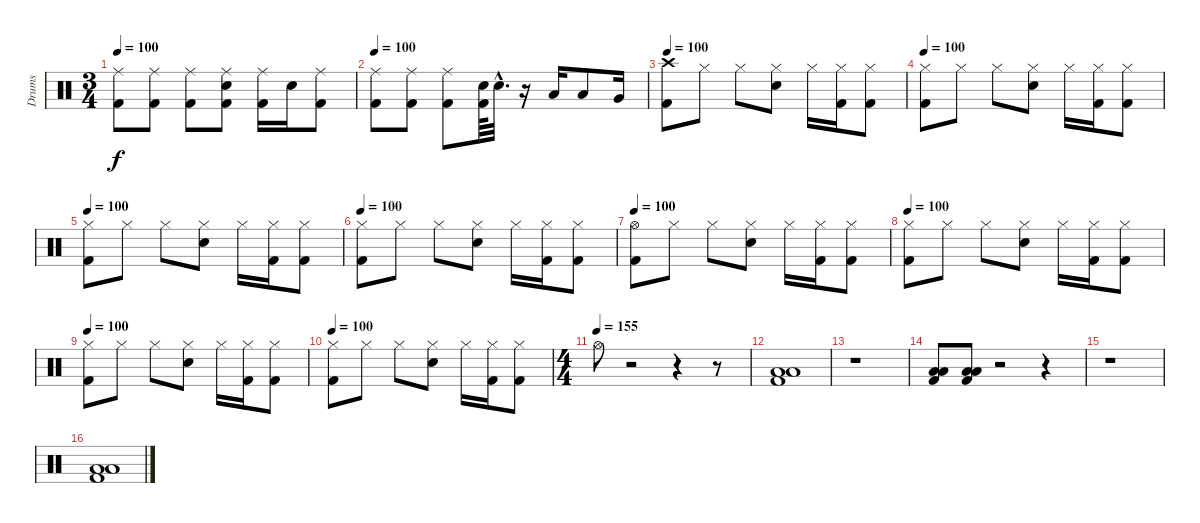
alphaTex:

\track ("Drums" "Drums") {instrument percussion}
\staff {score}
\articulation defaults
\ts (3 4)
\tempo 100
\clef neutral
\ks c
("Ride (middle)" "Kick (hit) 2").8{dy f} ("Ride (middle)" "Kick (hit) 2").8 ("Ride (middle)" "Kick (hit) 2").8 ("Ride (middle)" "Electric Snare (hit)" "Kick (hit) 2").8 ("Ride (middle)" "Kick (hit) 2").16 "Electric Snare (hit)".16 ("Ride (middle)" "Kick (hit) 2").8 |
\tempo 100
("Ride (middle)" "Kick (hit) 2").8 ("Ride (middle)" "Kick (hit) 2").8 ("Ride (middle)" "Kick (hit) 2").8 ("Electric Snare (hit)" "Kick (hit) 2").64 "Electric Snare (hit)"{hac}.32{d} r.16 "Low Tom (hit)".16 "Low Tom (hit)".8 "Very Low Tom (hit)".16 |
\tempo 100
("Crash high (hit)" "Kick (hit) 2").8 "Hi-Hat (closed)".8 "Hi-Hat (closed)".8 ("Hi-Hat (closed)" "Electric Snare (hit)").8 "Hi-Hat (closed)".16 ("Hi-Hat (closed)" "Kick (hit) 2").16 ("Hi-Hat (closed)" "Kick (hit) 2").8 |
\tempo 100
("Hi-Hat (closed)" "Kick (hit) 2").8 "Hi-Hat (closed)".8 "Hi-Hat (closed)".8 ("Hi-Hat (closed)" "Electric Snare (hit)").8 "Hi-Hat (closed)".16 ("Hi-Hat (closed)" "Kick (hit) 2").16 ("Hi-Hat (closed)" "Kick (hit) 2").8 |
\tempo 100
("Hi-Hat (closed)" "Kick (hit) 2").8 "Hi-Hat (closed)".8 "Hi-Hat (closed)".8 ("Hi-Hat (closed)" "Electric Snare (hit)").8 "Hi-Hat (closed)".16 ("Hi-Hat (closed)" "Kick (hit) 2").16 ("Hi-Hat (closed)" "Kick (hit) 2").8 |
\tempo 100
("Hi-Hat (closed)" "Kick (hit) 2").8 "Hi-Hat (closed)".8 "Hi-Hat (closed)".8 ("Hi-Hat (closed)" "Electric Snare (hit)").8 "Hi-Hat (closed)".16 ("Hi-Hat (closed)" "Kick (hit) 2").16 ("Hi-Hat (closed)" "Kick (hit) 2").8 |
\tempo 100
("Hi-Hat (open)" "Kick (hit) 2").8 "Hi-Hat (closed)".8 "Hi-Hat (closed)".8 ("Hi-Hat (closed)" "Electric Snare (hit)").8 "Hi-Hat (closed)".16 ("Hi-Hat (closed)" "Kick (hit) 2").16 ("Hi-Hat (closed)" "Kick (hit) 2").8 |
\tempo 100
("Hi-Hat (closed)" "Kick (hit) 2").8 "Hi-Hat (closed)".8 "Hi-Hat (closed)".8 ("Hi-Hat (closed)" "Electric Snare (hit)").8 "Hi-Hat (closed)".16 ("Hi-Hat (closed)" "Kick (hit) 2").16 ("Hi-Hat (closed)" "Kick (hit) 2").8 |
\tempo 100
("Hi-Hat (closed)" "Kick (hit) 2").8 "Hi-Hat (closed)".8 "Hi-Hat (closed)".8 ("Hi-Hat (closed)" "Electric Snare (hit)").8 "Hi-Hat (closed)".16 ("Hi-Hat (closed)" "Kick (hit) 2").16 ("Hi-Hat (closed)" "Kick (hit) 2").8 |
\tempo 100
("Hi-Hat (closed)" "Kick (hit) 2").8 "Hi-Hat (closed)".8 "Hi-Hat (closed)".8 ("Hi-Hat (closed)" "Electric Snare (hit)").8 "Hi-Hat (closed)".16 ("Hi-Hat (closed)" "Kick (hit) 2").16 ("Hi-Hat (closed)" "Kick (hit) 2").8 |
\ts (4 4)
\tempo (155)
"Hi-Hat (open)".8 r.2 r.4 r.8 |
("Low Tom (hit)" "Low Tom (hit)" "Kick (hit) 2").1 |
r.1 |
("Low Tom (hit)" "Low Tom (hit)" "Kick (hit) 2").8 ("Low Tom (hit)" "Low Tom (hit)" "Kick (hit) 2").8 r.2 r.4 |
r.1 |
("Low Tom (hit)" "Low Tom (hit)" "Kick (hit) 2").1
